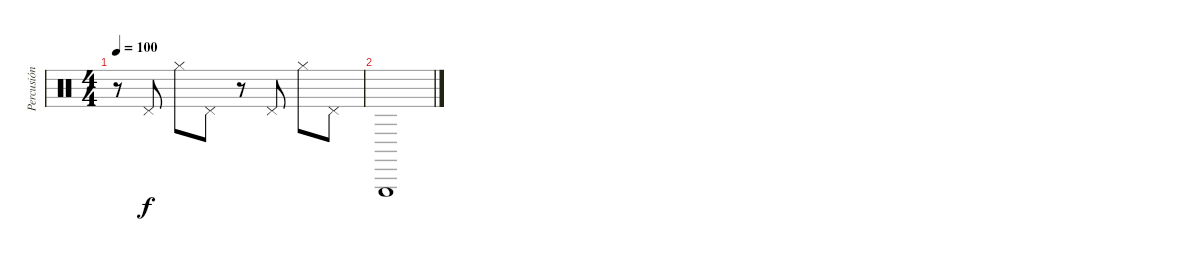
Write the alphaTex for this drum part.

\track ("Percusión" "Percusión") {instrument percussion}
\staff {score}
\articulation defaults
\ts (4 4)
\tempo 100
\clef neutral
\ks c
r.8{dy f} "Pedal Hi-Hat (hit)".8 "Hi-Hat (closed)".8 "Pedal Hi-Hat (hit)".8 r.8 "Pedal Hi-Hat (hit)".8 "Hi-Hat (closed)".8 "Pedal Hi-Hat (hit)".8 |
"Triangle (hit)".1
